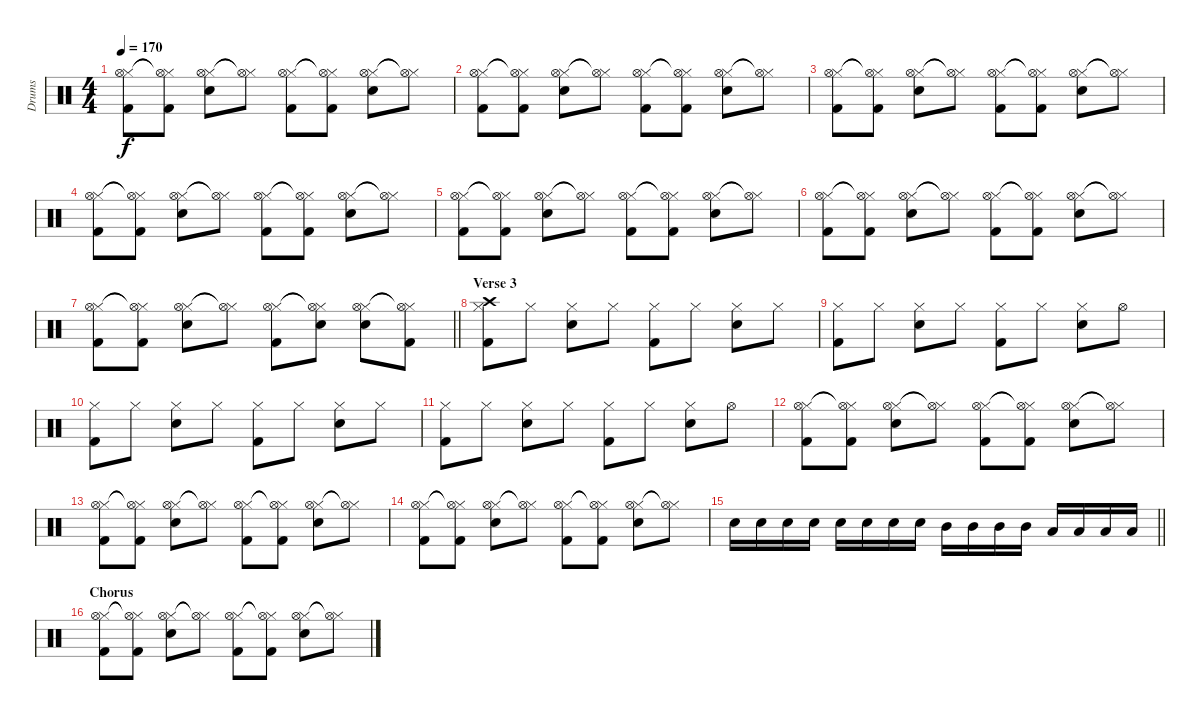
\track ("Drums" "Drums") {instrument percussion}
\staff {score}
\articulation defaults
\ts (4 4)
\tempo 170
\clef neutral
\ks c
("Hi-Hat (closed)" "Hi-Hat (open)" "Kick (hit) 2").8{dy f} ("Hi-Hat (closed)"{t} "Hi-Hat (open)"{t} "Kick (hit) 2").8 ("Hi-Hat (closed)" "Hi-Hat (open)" "Snare (hit) 2").8 ("Hi-Hat (closed)"{t} "Hi-Hat (open)"{t}).8 ("Hi-Hat (closed)" "Hi-Hat (open)" "Kick (hit) 2").8 ("Hi-Hat (closed)"{t} "Hi-Hat (open)"{t} "Kick (hit) 2").8 ("Hi-Hat (closed)" "Hi-Hat (open)" "Snare (hit) 2").8 ("Hi-Hat (closed)"{t} "Hi-Hat (open)"{t}).8 |
("Hi-Hat (closed)" "Hi-Hat (open)" "Kick (hit) 2").8 ("Hi-Hat (closed)"{t} "Hi-Hat (open)"{t} "Kick (hit) 2").8 ("Hi-Hat (closed)" "Hi-Hat (open)" "Snare (hit) 2").8 ("Hi-Hat (closed)"{t} "Hi-Hat (open)"{t}).8 ("Hi-Hat (closed)" "Hi-Hat (open)" "Kick (hit) 2").8 ("Hi-Hat (closed)"{t} "Hi-Hat (open)"{t} "Kick (hit) 2").8 ("Hi-Hat (closed)" "Hi-Hat (open)" "Snare (hit) 2").8 ("Hi-Hat (closed)"{t} "Hi-Hat (open)"{t}).8 |
("Hi-Hat (closed)" "Hi-Hat (open)" "Kick (hit) 2").8 ("Hi-Hat (closed)"{t} "Hi-Hat (open)"{t} "Kick (hit) 2").8 ("Hi-Hat (closed)" "Hi-Hat (open)" "Snare (hit) 2").8 ("Hi-Hat (closed)"{t} "Hi-Hat (open)"{t}).8 ("Hi-Hat (closed)" "Hi-Hat (open)" "Kick (hit) 2").8 ("Hi-Hat (closed)"{t} "Hi-Hat (open)"{t} "Kick (hit) 2").8 ("Hi-Hat (closed)" "Hi-Hat (open)" "Snare (hit) 2").8 ("Hi-Hat (closed)"{t} "Hi-Hat (open)"{t}).8 |
("Hi-Hat (closed)" "Hi-Hat (open)" "Kick (hit) 2").8 ("Hi-Hat (closed)"{t} "Hi-Hat (open)"{t} "Kick (hit) 2").8 ("Hi-Hat (closed)" "Hi-Hat (open)" "Snare (hit) 2").8 ("Hi-Hat (closed)"{t} "Hi-Hat (open)"{t}).8 ("Hi-Hat (closed)" "Hi-Hat (open)" "Kick (hit) 2").8 ("Hi-Hat (closed)"{t} "Hi-Hat (open)"{t} "Kick (hit) 2").8 ("Hi-Hat (closed)" "Hi-Hat (open)" "Snare (hit) 2").8 ("Hi-Hat (closed)"{t} "Hi-Hat (open)"{t}).8 |
("Hi-Hat (closed)" "Hi-Hat (open)" "Kick (hit) 2").8 ("Hi-Hat (closed)"{t} "Hi-Hat (open)"{t} "Kick (hit) 2").8 ("Hi-Hat (closed)" "Hi-Hat (open)" "Snare (hit) 2").8 ("Hi-Hat (closed)"{t} "Hi-Hat (open)"{t}).8 ("Hi-Hat (closed)" "Hi-Hat (open)" "Kick (hit) 2").8 ("Hi-Hat (closed)"{t} "Hi-Hat (open)"{t} "Kick (hit) 2").8 ("Hi-Hat (closed)" "Hi-Hat (open)" "Snare (hit) 2").8 ("Hi-Hat (closed)"{t} "Hi-Hat (open)"{t}).8 |
("Hi-Hat (closed)" "Hi-Hat (open)" "Kick (hit) 2").8 ("Hi-Hat (closed)"{t} "Hi-Hat (open)"{t} "Kick (hit) 2").8 ("Hi-Hat (closed)" "Hi-Hat (open)" "Snare (hit) 2").8 ("Hi-Hat (closed)"{t} "Hi-Hat (open)"{t}).8 ("Hi-Hat (closed)" "Hi-Hat (open)" "Kick (hit) 2").8 ("Hi-Hat (closed)"{t} "Hi-Hat (open)"{t} "Kick (hit) 2").8 ("Hi-Hat (closed)" "Hi-Hat (open)" "Snare (hit) 2").8 ("Hi-Hat (closed)"{t} "Hi-Hat (open)"{t}).8 |
\barLineRight lightlight
("Hi-Hat (closed)" "Hi-Hat (open)" "Kick (hit) 2").8 ("Hi-Hat (closed)"{t} "Hi-Hat (open)"{t} "Kick (hit) 2").8 ("Hi-Hat (closed)" "Hi-Hat (open)" "Snare (hit) 2").8 ("Hi-Hat (closed)"{t} "Hi-Hat (open)"{t}).8 ("Hi-Hat (closed)" "Hi-Hat (open)" "Kick (hit) 2").8 ("Hi-Hat (closed)"{t} "Hi-Hat (open)"{t} "Snare (hit) 2").8 ("Hi-Hat (closed)" "Hi-Hat (open)" "Snare (hit) 2").8 ("Hi-Hat (closed)"{t} "Hi-Hat (open)"{t} "Kick (hit) 2").8 |
\section ("" "Verse 3")
("Hi-Hat (closed)" "Crash high (hit)" "Kick (hit) 2").8 "Hi-Hat (closed)".8 ("Hi-Hat (closed)" "Snare (hit) 2").8 "Hi-Hat (closed)".8 ("Hi-Hat (closed)" "Kick (hit) 2").8 "Hi-Hat (closed)".8 ("Hi-Hat (closed)" "Snare (hit) 2").8 "Hi-Hat (closed)".8 |
("Hi-Hat (closed)" "Kick (hit) 2").8 "Hi-Hat (closed)".8 ("Hi-Hat (closed)" "Snare (hit) 2").8 "Hi-Hat (closed)".8 ("Hi-Hat (closed)" "Kick (hit) 2").8 "Hi-Hat (closed)".8 ("Hi-Hat (closed)" "Snare (hit) 2").8 "Hi-Hat (open)".8 |
("Hi-Hat (closed)" "Kick (hit) 2").8 "Hi-Hat (closed)".8 ("Hi-Hat (closed)" "Snare (hit) 2").8 "Hi-Hat (closed)".8 ("Hi-Hat (closed)" "Kick (hit) 2").8 "Hi-Hat (closed)".8 ("Hi-Hat (closed)" "Snare (hit) 2").8 "Hi-Hat (closed)".8 |
("Hi-Hat (closed)" "Kick (hit) 2").8 "Hi-Hat (closed)".8 ("Hi-Hat (closed)" "Snare (hit) 2").8 "Hi-Hat (closed)".8 ("Hi-Hat (closed)" "Kick (hit) 2").8 "Hi-Hat (closed)".8 ("Hi-Hat (closed)" "Snare (hit) 2").8 "Hi-Hat (open)".8 |
("Hi-Hat (closed)" "Hi-Hat (open)" "Kick (hit) 2").8 ("Hi-Hat (closed)"{t} "Hi-Hat (open)"{t} "Kick (hit) 2").8 ("Hi-Hat (closed)" "Hi-Hat (open)" "Snare (hit) 2").8 ("Hi-Hat (closed)"{t} "Hi-Hat (open)"{t}).8 ("Hi-Hat (closed)" "Hi-Hat (open)" "Kick (hit) 2").8 ("Hi-Hat (closed)"{t} "Hi-Hat (open)"{t} "Kick (hit) 2").8 ("Hi-Hat (closed)" "Hi-Hat (open)" "Snare (hit) 2").8 ("Hi-Hat (closed)"{t} "Hi-Hat (open)"{t}).8 |
("Hi-Hat (closed)" "Hi-Hat (open)" "Kick (hit) 2").8 ("Hi-Hat (closed)"{t} "Hi-Hat (open)"{t} "Kick (hit) 2").8 ("Hi-Hat (closed)" "Hi-Hat (open)" "Snare (hit) 2").8 ("Hi-Hat (closed)"{t} "Hi-Hat (open)"{t}).8 ("Hi-Hat (closed)" "Hi-Hat (open)" "Kick (hit) 2").8 ("Hi-Hat (closed)"{t} "Hi-Hat (open)"{t} "Kick (hit) 2").8 ("Hi-Hat (closed)" "Hi-Hat (open)" "Snare (hit) 2").8 ("Hi-Hat (closed)"{t} "Hi-Hat (open)"{t}).8 |
("Hi-Hat (closed)" "Hi-Hat (open)" "Kick (hit) 2").8 ("Hi-Hat (closed)"{t} "Hi-Hat (open)"{t} "Kick (hit) 2").8 ("Hi-Hat (closed)" "Hi-Hat (open)" "Snare (hit) 2").8 ("Hi-Hat (closed)"{t} "Hi-Hat (open)"{t}).8 ("Hi-Hat (closed)" "Hi-Hat (open)" "Kick (hit) 2").8 ("Hi-Hat (closed)"{t} "Hi-Hat (open)"{t} "Kick (hit) 2").8 ("Hi-Hat (closed)" "Hi-Hat (open)" "Snare (hit) 2").8 ("Hi-Hat (closed)"{t} "Hi-Hat (open)"{t}).8 |
\barLineRight lightlight "Snare (hit) 2".16 "Snare (hit) 2".16 "Snare (hit) 2".16 "Snare (hit) 2".16 "Snare (hit) 2".16 "Snare (hit) 2".16 "Snare (hit) 2".16 "Snare (hit) 2".16 "Mid Tom (hit)".16 "Mid Tom (hit)".16 "Mid Tom (hit)".16 "Mid Tom (hit)".16 "Low Tom (hit)".16 "Low Tom (hit)".16 "Low Tom (hit)".16 "Low Tom (hit)".16
|
\section ("" "Chorus")
("Hi-Hat (closed)" "Hi-Hat (open)" "Kick (hit) 2").8 ("Hi-Hat (closed)"{t} "Hi-Hat (open)"{t} "Kick (hit) 2").8 ("Hi-Hat (closed)" "Hi-Hat (open)" "Snare (hit) 2").8 ("Hi-Hat (closed)"{t} "Hi-Hat (open)"{t}).8 ("Hi-Hat (closed)" "Hi-Hat (open)" "Kick (hit) 2").8 ("Hi-Hat (closed)"{t} "Hi-Hat (open)"{t} "Kick (hit) 2").8 ("Hi-Hat (closed)" "Hi-Hat (open)" "Snare (hit) 2").8 ("Hi-Hat (closed)"{t} "Hi-Hat (open)"{t}).8
